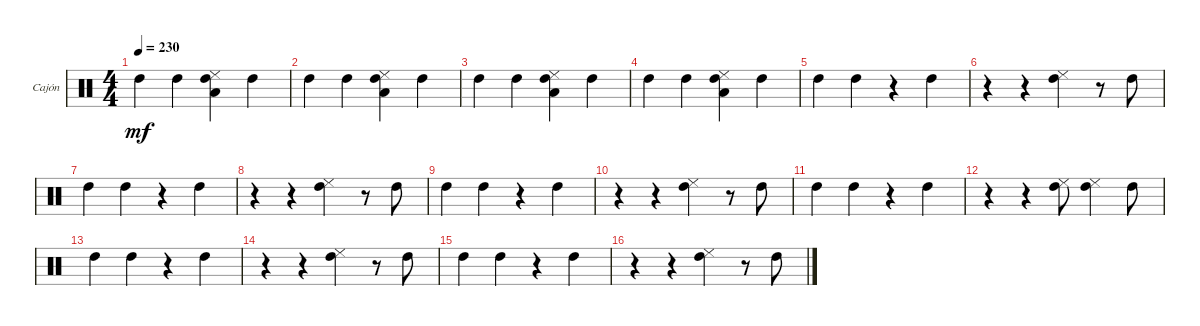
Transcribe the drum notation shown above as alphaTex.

\defaultSystemsLayout 4
\bracketExtendMode groupsimilarinstruments
\firstSystemTrackNameOrientation horizontal
\otherSystemsTrackNameOrientation horizontal
\track ("Cajón (Ira)" "Cajón") {instrument percussion}
\staff {score}
\articulation defaults
\ts (4 4)
\tempo 230
\clef neutral
\scale
0.333333
\ks c "High Tom (hit)".4{dy mf} "High Tom (hit)".4
("High Tom (hit)" "Low Tom (hit)" "Cowbell low (tip)").4 "High Tom (hit)".4 |
\scale
0.333333 "High Tom (hit)".4 "High Tom (hit)".4 ("High Tom (hit)" "Low Tom (hit)" "Cowbell low (tip)").4 "High Tom (hit)".4 |
\scale
0.333333 "High Tom (hit)".4 "High Tom (hit)".4 ("High Tom (hit)" "Low Tom (hit)" "Cowbell low (tip)").4 "High Tom (hit)".4 |
\scale
0.333333 "High Tom (hit)".4 "High Tom (hit)".4 ("High Tom (hit)" "Low Tom (hit)" "Cowbell low (tip)").4 "High Tom (hit)".4 |
"High Tom (hit)".4 "High Tom (hit)".4 r.4 "High Tom (hit)".4 |
\scale
0.333333 r.4 r.4 ("Cowbell low (tip)" "High Tom (hit)").4 r.8 "High Tom (hit)".8 |
\scale
0.333333 "High Tom (hit)".4 "High Tom (hit)".4 r.4 "High Tom (hit)".4 |
\scale
0.333333 r.4 r.4 ("High Tom (hit)" "Cowbell low (tip)").4 r.8 "High Tom (hit)".8 |
\scale
0.333333 "High Tom (hit)".4 "High Tom (hit)".4 r.4 "High Tom (hit)".4 |
\scale
0.333333 r.4 r.4 ("Cowbell low (tip)" "High Tom (hit)").4 r.8 "High Tom (hit)".8 |
\scale
0.333333 "High Tom (hit)".4 "High Tom (hit)".4 r.4 "High Tom (hit)".4 |
\scale
0.333333 r.4 r.4 ("High Tom (hit)" "Cowbell low (tip)").8 ("High Tom (hit)" "Cowbell low (tip)").4 "High Tom (hit)".8 |
\scale
0.333333 "High Tom (hit)".4 "High Tom (hit)".4 r.4 "High Tom (hit)".4 |
\scale
0.333333 r.4 r.4 ("Cowbell low (tip)" "High Tom (hit)").4 r.8 "High Tom (hit)".8 |
\scale
0.333333 "High Tom (hit)".4 "High Tom (hit)".4 r.4 "High Tom (hit)".4 |
\scale
0.333333 r.4 r.4 ("High Tom (hit)" "Cowbell low (tip)").4 r.8 "High Tom (hit)".8
